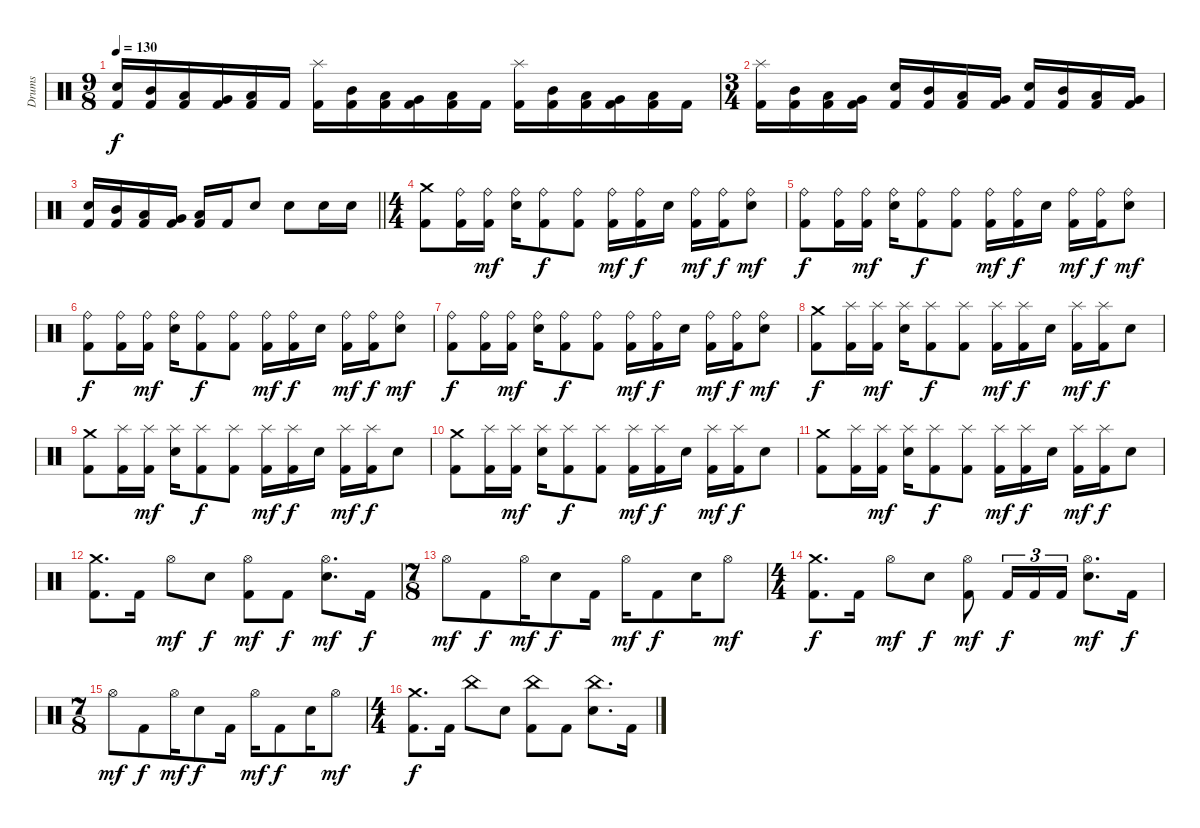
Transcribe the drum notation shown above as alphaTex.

\track ("Drums" "Drums") {instrument percussion}
\staff {score}
\articulation defaults
\ts (9 8)
\tempo 130
\clef neutral
\ks c
("Kick (hit) 2" "Electric Snare (hit)").16{dy f} ("Kick (hit) 2" "Mid Tom (hit)").16 ("Kick (hit) 2" "Low Tom (hit)").16 ("Kick (hit) 2" "Very Low Tom (hit)").16 ("Kick (hit) 2" "Low Floor Tom (hit)").16 "Kick (hit) 2".16 ("Kick (hit) 2" "Splash (hit)").16 ("Kick (hit) 2" "Mid Tom (hit)").16 ("Kick (hit) 2" "Low Tom (hit)").16 ("Kick (hit) 2" "Very Low Tom (hit)").16 ("Kick (hit) 2" "Low Floor Tom (hit)").16 "Kick (hit) 2".16 ("Kick (hit) 2" "Splash (hit)").16 ("Kick (hit) 2" "Mid Tom (hit)").16 ("Kick (hit) 2" "Low Tom (hit)").16 ("Kick (hit) 2" "Very Low Tom (hit)").16 ("Kick (hit) 2" "Low Floor Tom (hit)").16 "Kick (hit) 2".16 |
\ts (3 4)
("Kick (hit) 2" "Splash (hit)").16 ("Kick (hit) 2" "Mid Tom (hit)").16 ("Kick (hit) 2" "Low Tom (hit)").16 ("Kick (hit) 2" "Very Low Tom (hit)").16 ("Kick (hit) 2" "Electric Snare (hit)").16 ("Kick (hit) 2" "Mid Tom (hit)").16 ("Kick (hit) 2" "Low Tom (hit)").16 ("Kick (hit) 2" "Very Low Tom (hit)").16 ("Kick (hit) 2" "Electric Snare (hit)").16 ("Kick (hit) 2" "Mid Tom (hit)").16 ("Kick (hit) 2" "Low Tom (hit)").16 ("Kick (hit) 2" "Very Low Tom (hit)").16 |
\barLineRight lightlight
("Kick (hit) 2" "Electric Snare (hit)").16 ("Kick (hit) 2" "Mid Tom (hit)").16 ("Kick (hit) 2" "Low Tom (hit)").16 ("Kick (hit) 2" "Very Low Tom (hit)").16 ("Kick (hit) 2" "Low Floor Tom (hit)").16 "Kick (hit) 2".16 "Electric Snare (hit)".8 "Electric Snare (hit)".8 "Electric Snare (hit)".16 "Electric Snare (hit)".16 |
\ts (4 4)
("Kick (hit) 2" "Crash medium (hit)").8 ("Kick (hit) 2" "Ride (bell)").16 ("Kick (hit) 2" "Ride (bell)").16{dy mf} ("Ride (bell)" "Electric Snare (hit)").16 ("Kick (hit) 2" "Ride (bell)").8{dy f} ("Kick (hit) 2" "Ride (bell)").8 ("Kick (hit) 2" "Ride (bell)").16{dy mf} ("Kick (hit) 2" "Ride (bell)").16{dy f} "Electric Snare (hit)".16 ("Kick (hit) 2" "Ride (bell)").16{dy mf} ("Kick (hit) 2" "Ride (bell)").16{dy f} ("Ride (bell)" "Electric Snare (hit)").8{dy mf} |
("Kick (hit) 2" "Ride (bell)").8{dy f} ("Kick (hit) 2" "Ride (bell)").16 ("Kick (hit) 2" "Ride (bell)").16{dy mf} ("Ride (bell)" "Electric Snare (hit)").16 ("Kick (hit) 2" "Ride (bell)").8{dy f} ("Kick (hit) 2" "Ride (bell)").8 ("Kick (hit) 2" "Ride (bell)").16{dy mf} ("Kick (hit) 2" "Ride (bell)").16{dy f} "Electric Snare (hit)".16 ("Kick (hit) 2" "Ride (bell)").16{dy mf} ("Kick (hit) 2" "Ride (bell)").16{dy f} ("Ride (bell)" "Electric Snare (hit)").8{dy mf} |
("Kick (hit) 2" "Ride (bell)").8{dy f} ("Kick (hit) 2" "Ride (bell)").16 ("Kick (hit) 2" "Ride (bell)").16{dy mf} ("Ride (bell)" "Electric Snare (hit)").16 ("Kick (hit) 2" "Ride (bell)").8{dy f} ("Kick (hit) 2" "Ride (bell)").8 ("Kick (hit) 2" "Ride (bell)").16{dy mf} ("Kick (hit) 2" "Ride (bell)").16{dy f} "Electric Snare (hit)".16 ("Kick (hit) 2" "Ride (bell)").16{dy mf} ("Kick (hit) 2" "Ride (bell)").16{dy f} ("Ride (bell)" "Electric Snare (hit)").8{dy mf} |
("Kick (hit) 2" "Ride (bell)").8{dy f} ("Kick (hit) 2" "Ride (bell)").16 ("Kick (hit) 2" "Ride (bell)").16{dy mf} ("Ride (bell)" "Electric Snare (hit)").16 ("Kick (hit) 2" "Ride (bell)").8{dy f} ("Kick (hit) 2" "Ride (bell)").8 ("Kick (hit) 2" "Ride (bell)").16{dy mf} ("Kick (hit) 2" "Ride (bell)").16{dy f} "Electric Snare (hit)".16 ("Kick (hit) 2" "Ride (bell)").16{dy mf} ("Kick (hit) 2" "Ride (bell)").16{dy f} ("Ride (bell)" "Electric Snare (hit)").8{dy mf} |
("Kick (hit) 2" "Crash medium (hit)").8{dy f} ("Kick (hit) 2" "Splash (hit)").16 ("Kick (hit) 2" "Splash (hit)").16{dy mf} ("Splash (hit)" "Electric Snare (hit)").16 ("Kick (hit) 2" "Splash (hit)").8{dy f} ("Kick (hit) 2" "Splash (hit)").8 ("Kick (hit) 2" "Splash (hit)").16{dy mf} ("Kick (hit) 2" "Splash (hit)").16{dy f} "Electric Snare (hit)".16 ("Kick (hit) 2" "Splash (hit)").16{dy mf} ("Kick (hit) 2" "Splash (hit)").16{dy f} "Electric Snare (hit)".8 |
("Kick (hit) 2" "Crash medium (hit)").8 ("Kick (hit) 2" "Splash (hit)").16 ("Kick (hit) 2" "Splash (hit)").16{dy mf} ("Splash (hit)" "Electric Snare (hit)").16 ("Kick (hit) 2" "Splash (hit)").8{dy f} ("Kick (hit) 2" "Splash (hit)").8 ("Kick (hit) 2" "Splash (hit)").16{dy mf} ("Kick (hit) 2" "Splash (hit)").16{dy f} "Electric Snare (hit)".16 ("Kick (hit) 2" "Splash (hit)").16{dy mf} ("Kick (hit) 2" "Splash (hit)").16{dy f} "Electric Snare (hit)".8 |
("Kick (hit) 2" "Crash medium (hit)").8 ("Kick (hit) 2" "Splash (hit)").16 ("Kick (hit) 2" "Splash (hit)").16{dy mf} ("Splash (hit)" "Electric Snare (hit)").16 ("Kick (hit) 2" "Splash (hit)").8{dy f} ("Kick (hit) 2" "Splash (hit)").8 ("Kick (hit) 2" "Splash (hit)").16{dy mf} ("Kick (hit) 2" "Splash (hit)").16{dy f} "Electric Snare (hit)".16 ("Kick (hit) 2" "Splash (hit)").16{dy mf} ("Kick (hit) 2" "Splash (hit)").16{dy f} "Electric Snare (hit)".8 |
("Kick (hit) 2" "Crash medium (hit)").8 ("Kick (hit) 2" "Splash (hit)").16 ("Kick (hit) 2" "Splash (hit)").16{dy mf} ("Splash (hit)" "Electric Snare (hit)").16 ("Kick (hit) 2" "Splash (hit)").8{dy f} ("Kick (hit) 2" "Splash (hit)").8 ("Kick (hit) 2" "Splash (hit)").16{dy mf} ("Kick (hit) 2" "Splash (hit)").16{dy f} "Electric Snare (hit)".16 ("Kick (hit) 2" "Splash (hit)").16{dy mf} ("Kick (hit) 2" "Splash (hit)").16{dy f} "Electric Snare (hit)".8 |
("Kick (hit) 2" "Crash medium (hit)").8{d} "Kick (hit) 2".16 "Hi-Hat (open)".8{dy mf} "Electric Snare (hit)".8{dy f} ("Kick (hit) 2" "Hi-Hat (open)").8{dy mf} "Kick (hit) 2".8{dy f} ("Hi-Hat (open)" "Electric Snare (hit)").8{d dy mf} "Kick (hit) 2".16{dy f} |
\ts (7 8)
"Hi-Hat (open)".8{dy mf} "Kick (hit) 2".8{dy f} "Hi-Hat (open)".16{dy mf} "Electric Snare (hit)".8{dy f} "Kick (hit) 2".16 "Hi-Hat (open)".16{dy mf} "Kick (hit) 2".8{dy f} "Electric Snare (hit)".16 "Hi-Hat (open)".8{dy mf} |
\ts (4 4)
("Kick (hit) 2" "Crash medium (hit)").8{d dy f} "Kick (hit) 2".16 "Hi-Hat (open)".8{dy mf} "Electric Snare (hit)".8{dy f} ("Kick (hit) 2" "Hi-Hat (open)").8{dy mf} "Kick (hit) 2".16{tu (3 2) dy f} "Kick (hit) 2".16{tu (3 2)} "Kick (hit) 2".16{tu (3 2)} ("Hi-Hat (open)" "Electric Snare (hit)").8{d dy mf} "Kick (hit) 2".16{dy f} |
\ts (7 8)
"Hi-Hat (open)".8{dy mf} "Kick (hit) 2".8{dy f} "Hi-Hat (open)".16{dy mf} "Electric Snare (hit)".8{dy f} "Kick (hit) 2".16 "Hi-Hat (open)".16{dy mf} "Kick (hit) 2".8{dy f} "Electric Snare (hit)".16 "Hi-Hat (open)".8{dy mf} |
\ts (4 4)
("Kick (hit) 2" "Crash medium (hit)").8{d dy f} "Kick (hit) 2".16 "China (hit)".8 "Electric Snare (hit)".8 ("Kick (hit) 2" "China (hit)").8 "Kick (hit) 2".8 ("China (hit)" "Electric Snare (hit)").8{d} "Kick (hit) 2".16
